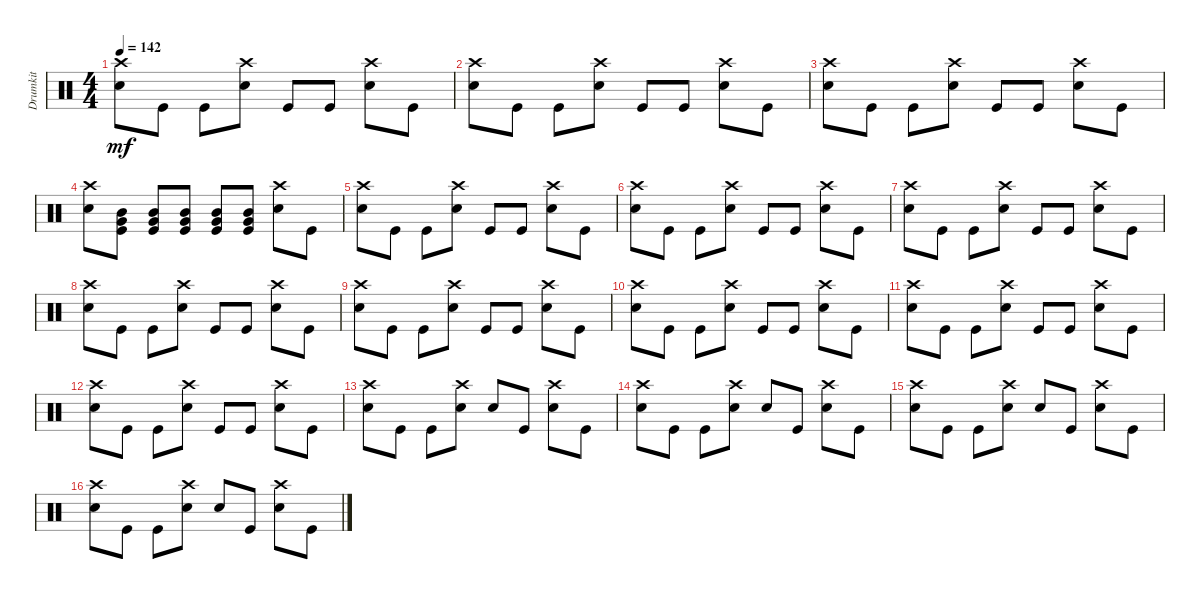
\track ("Drumkit" "Drumkit") {instrument percussion}
\staff {score}
\articulation defaults
\ts (4 4)
\tempo 142
\clef neutral
\ks c
("Snare (hit) 2" "Crash high (hit)").8{dy mf} "Kick (hit)".8 "Kick (hit)".8 ("Snare (hit) 2" "Crash high (hit)").8 "Kick (hit)".8 "Kick (hit)".8 ("Snare (hit) 2" "Crash high (hit)").8 "Kick (hit)".8 |
("Snare (hit) 2" "Crash high (hit)").8 "Kick (hit)".8 "Kick (hit)".8 ("Snare (hit) 2" "Crash high (hit)").8 "Kick (hit)".8 "Kick (hit)".8 ("Snare (hit) 2" "Crash high (hit)").8 "Kick (hit)".8 |
("Snare (hit) 2" "Crash high (hit)").8 "Kick (hit)".8 "Kick (hit)".8 ("Snare (hit) 2" "Crash high (hit)").8 "Kick (hit)".8 "Kick (hit)".8 ("Snare (hit) 2" "Crash high (hit)").8 "Kick (hit)".8 |
("Snare (hit) 2" "Crash high (hit)").8 ("Kick (hit)" "Very Low Tom (hit)" "Mid Tom (hit)").8 ("Kick (hit)" "Very Low Tom (hit)" "Mid Tom (hit)").8 ("Kick (hit)" "Very Low Tom (hit)" "Mid Tom (hit)").8 ("Kick (hit)" "Very Low Tom (hit)" "Mid Tom (hit)").8 ("Kick (hit)" "Very Low Tom (hit)" "Mid Tom (hit)").8 ("Snare (hit) 2" "Crash high (hit)").8 "Kick (hit)".8 |
("Snare (hit) 2" "Crash high (hit)").8 "Kick (hit)".8 "Kick (hit)".8 ("Snare (hit) 2" "Crash high (hit)").8 "Kick (hit)".8 "Kick (hit)".8 ("Snare (hit) 2" "Crash high (hit)").8 "Kick (hit)".8 |
("Snare (hit) 2" "Crash high (hit)").8 "Kick (hit)".8 "Kick (hit)".8 ("Snare (hit) 2" "Crash high (hit)").8 "Kick (hit)".8 "Kick (hit)".8 ("Snare (hit) 2" "Crash high (hit)").8 "Kick (hit)".8 |
("Snare (hit) 2" "Crash high (hit)").8 "Kick (hit)".8 "Kick (hit)".8 ("Snare (hit) 2" "Crash high (hit)").8 "Kick (hit)".8 "Kick (hit)".8 ("Snare (hit) 2" "Crash high (hit)").8 "Kick (hit)".8 |
("Snare (hit) 2" "Crash high (hit)").8 "Kick (hit)".8 "Kick (hit)".8 ("Snare (hit) 2" "Crash high (hit)").8 "Kick (hit)".8 "Kick (hit)".8 ("Snare (hit) 2" "Crash high (hit)").8 "Kick (hit)".8 |
("Snare (hit) 2" "Crash high (hit)").8 "Kick (hit)".8 "Kick (hit)".8 ("Snare (hit) 2" "Crash high (hit)").8 "Kick (hit)".8 "Kick (hit)".8 ("Snare (hit) 2" "Crash high (hit)").8 "Kick (hit)".8 |
("Snare (hit) 2" "Crash high (hit)").8 "Kick (hit)".8 "Kick (hit)".8 ("Snare (hit) 2" "Crash high (hit)").8 "Kick (hit)".8 "Kick (hit)".8 ("Snare (hit) 2" "Crash high (hit)").8 "Kick (hit)".8 |
("Snare (hit) 2" "Crash high (hit)").8 "Kick (hit)".8 "Kick (hit)".8 ("Snare (hit) 2" "Crash high (hit)").8 "Kick (hit)".8 "Kick (hit)".8 ("Snare (hit) 2" "Crash high (hit)").8 "Kick (hit)".8 |
("Snare (hit) 2" "Crash high (hit)").8 "Kick (hit)".8 "Kick (hit)".8 ("Snare (hit) 2" "Crash high (hit)").8 "Kick (hit)".8 "Kick (hit)".8 ("Snare (hit) 2" "Crash high (hit)").8 "Kick (hit)".8 |
("Snare (hit) 2" "Crash high (hit)").8 "Kick (hit)".8 "Kick (hit)".8 ("Snare (hit) 2" "Crash high (hit)").8 "Snare (hit) 2".8 "Kick (hit)".8 ("Snare (hit) 2" "Crash high (hit)").8 "Kick (hit)".8 |
("Snare (hit) 2" "Crash high (hit)").8 "Kick (hit)".8 "Kick (hit)".8 ("Snare (hit) 2" "Crash high (hit)").8 "Snare (hit) 2".8 "Kick (hit)".8 ("Snare (hit) 2" "Crash high (hit)").8 "Kick (hit)".8 |
("Snare (hit) 2" "Crash high (hit)").8 "Kick (hit)".8 "Kick (hit)".8 ("Snare (hit) 2" "Crash high (hit)").8 "Snare (hit) 2".8 "Kick (hit)".8 ("Snare (hit) 2" "Crash high (hit)").8 "Kick (hit)".8 |
("Snare (hit) 2" "Crash high (hit)").8 "Kick (hit)".8 "Kick (hit)".8 ("Snare (hit) 2" "Crash high (hit)").8 "Snare (hit) 2".8 "Kick (hit)".8 ("Snare (hit) 2" "Crash high (hit)").8 "Kick (hit)".8
